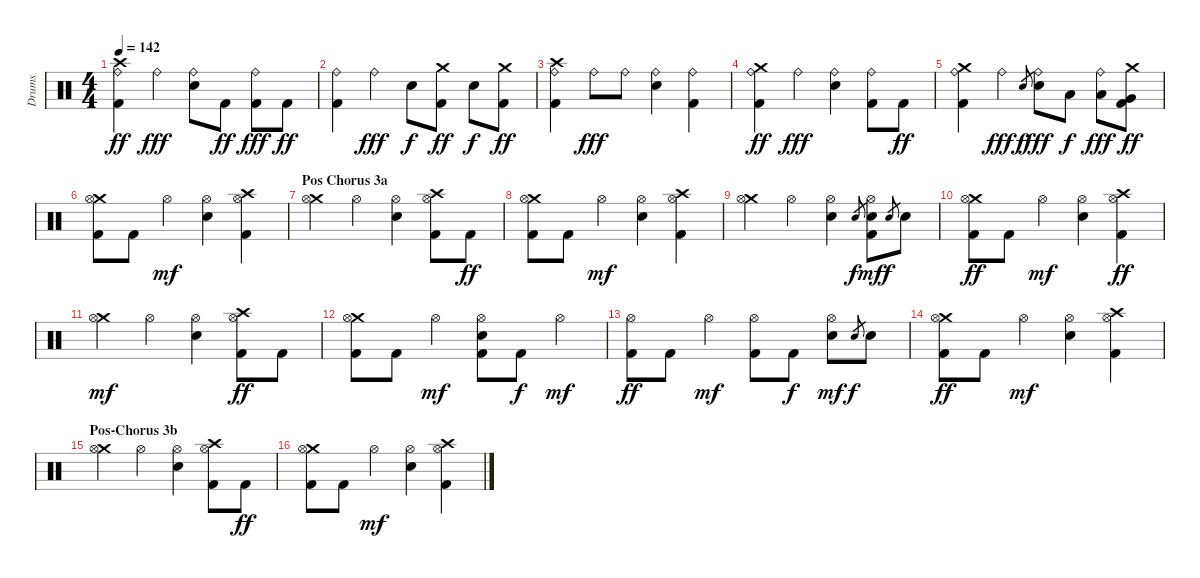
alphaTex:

\track ("Drums" "Drums") {instrument percussion}
\staff {score}
\articulation defaults
\ts (4 4)
\tempo 142
\clef neutral
\ks c
("Crash high (hit)" "Ride (bell)" "Kick (hit) 2").4{dy ff} "Ride (bell)".4{dy fff} ("Ride (bell)" "Snare (hit) 2").8 "Kick (hit) 2".8{dy ff} ("Ride (bell)" "Kick (hit) 2").8{dy fff} "Kick (hit) 2".8{dy ff} |
("Ride (bell)" "Kick (hit) 2").4 "Ride (bell)".4{dy fff} "Snare (hit) 2".8{dy f} ("Crash medium (hit)" "Kick (hit) 2").8{dy ff} "Snare (hit) 2".8{dy f} ("Crash medium (hit)" "Kick (hit) 2").8{dy ff} |
("Crash high (hit)" "Ride (bell)" "Kick (hit) 2").4 "Ride (bell)".8{dy fff} "Ride (bell)".8 ("Ride (bell)" "Snare (hit) 2").4 ("Ride (bell)" "Kick (hit) 2").4 |
("Crash medium (hit)" "Ride (bell)" "Kick (hit) 2").4{dy ff} "Ride (bell)".4{dy fff} ("Ride (bell)" "Snare (hit) 2").4 ("Ride (bell)" "Kick (hit) 2").8 "Kick (hit) 2".8{dy ff} |
("Crash medium (hit)" "Ride (bell)" "Kick (hit) 2").4 "Ride (bell)".4{dy fff} "Snare (hit) 2".8{gr dy f} ("Ride (bell)" "Snare (hit) 2").8{dy fff} "Low Tom (hit)".8{dy f} ("Ride (bell)" "Low Tom (hit)").8{dy fff} ("Crash medium (hit)" "Very Low Tom (hit)" "Kick (hit) 2").8{dy ff} |
("Crash medium (hit)" "Hi-Hat (open)" "Kick (hit) 2").8 "Kick (hit) 2".8 "Hi-Hat (open)".4{dy mf} ("Hi-Hat (open)" "Snare (hit) 2").4 ("Crash high (hit)" "Hi-Hat (open)" "Kick (hit) 2").4 |
\section ("" "Pos Chorus 3a")
("Crash medium (hit)" "Hi-Hat (open)").4 "Hi-Hat (open)".4 ("Hi-Hat (open)" "Snare (hit) 2").4 ("Crash high (hit)" "Hi-Hat (open)" "Kick (hit) 2").8 "Kick (hit) 2".8{dy ff} |
("Crash medium (hit)" "Hi-Hat (open)" "Kick (hit) 2").8 "Kick (hit) 2".8 "Hi-Hat (open)".4{dy mf} ("Hi-Hat (open)" "Snare (hit) 2").4 ("Crash high (hit)" "Hi-Hat (open)" "Kick (hit) 2").4 |
("Crash medium (hit)" "Hi-Hat (open)").4 "Hi-Hat (open)".4 ("Hi-Hat (open)" "Snare (hit) 2").4 "Snare (hit) 2".8{gr dy f} ("Hi-Hat (open)" "Snare (hit) 2" "Kick (hit) 2").8{dy mf} "Snare (hit) 2".8{gr dy f} "Snare (hit) 2".8 |
("Crash medium (hit)" "Hi-Hat (open)" "Kick (hit) 2").8{dy ff} "Kick (hit) 2".8 "Hi-Hat (open)".4{dy mf} ("Hi-Hat (open)" "Snare (hit) 2").4 ("Crash high (hit)" "Hi-Hat (open)" "Kick (hit) 2").4{dy ff} |
("Crash medium (hit)" "Hi-Hat (open)").4{dy mf} "Hi-Hat (open)".4 ("Hi-Hat (open)" "Snare (hit) 2").4 ("Crash high (hit)" "Hi-Hat (open)" "Kick (hit) 2").8{dy ff} "Kick (hit) 2".8 |
("Crash medium (hit)" "Hi-Hat (open)" "Kick (hit) 2").8 "Kick (hit) 2".8 "Hi-Hat (open)".4{dy mf} ("Hi-Hat (open)" "Snare (hit) 2" "Kick (hit) 2").8 "Kick (hit) 2".8{dy f} "Hi-Hat (open)".4{dy mf} |
("Hi-Hat (open)" "Kick (hit) 2").8{dy ff} "Kick (hit) 2".8 "Hi-Hat (open)".4{dy mf} ("Hi-Hat (open)" "Kick (hit) 2").8 "Kick (hit) 2".8{dy f} ("Hi-Hat (open)" "Snare (hit) 2").8{dy mf} "Snare (hit) 2".8{gr dy f} "Snare (hit) 2".8 |
("Crash medium (hit)" "Hi-Hat (open)" "Kick (hit) 2").8{dy ff} "Kick (hit) 2".8 "Hi-Hat (open)".4{dy mf} ("Hi-Hat (open)" "Snare (hit) 2").4 ("Crash high (hit)" "Hi-Hat (open)" "Kick (hit) 2").4 |
\section ("" "Pos-Chorus 3b")
("Crash medium (hit)" "Hi-Hat (open)").4 "Hi-Hat (open)".4 ("Hi-Hat (open)" "Snare (hit) 2").4 ("Crash high (hit)" "Hi-Hat (open)" "Kick (hit) 2").8 "Kick (hit) 2".8{dy ff} |
("Crash medium (hit)" "Hi-Hat (open)" "Kick (hit) 2").8 "Kick (hit) 2".8 "Hi-Hat (open)".4{dy mf} ("Hi-Hat (open)" "Snare (hit) 2").4 ("Crash high (hit)" "Hi-Hat (open)" "Kick (hit) 2").4
